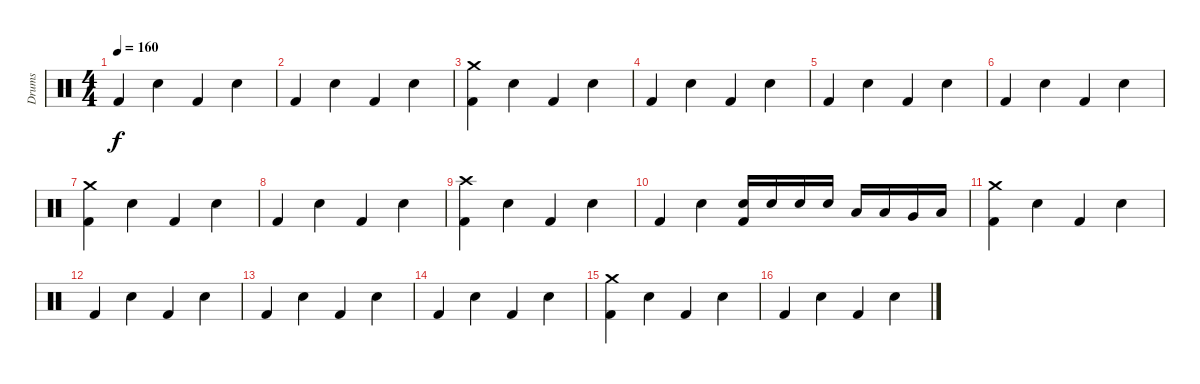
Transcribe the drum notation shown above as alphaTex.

\track ("Drums" "Drums") {instrument percussion}
\staff {score}
\articulation defaults
\ts (4 4)
\tempo 160
\clef neutral
\ks c "Kick (hit) 2".4{dy f} "Snare (hit) 2".4 "Kick (hit) 2".4 "Snare (hit) 2".4
|
"Kick (hit) 2".4 "Snare (hit) 2".4 "Kick (hit) 2".4 "Snare (hit) 2".4 |
("Kick (hit) 2" "Crash medium (hit)").4 "Snare (hit) 2".4 "Kick (hit) 2".4 "Snare (hit) 2".4 |
"Kick (hit) 2".4 "Snare (hit) 2".4 "Kick (hit) 2".4 "Snare (hit) 2".4 |
"Kick (hit) 2".4 "Snare (hit) 2".4 "Kick (hit) 2".4 "Snare (hit) 2".4 |
"Kick (hit) 2".4 "Snare (hit) 2".4 "Kick (hit) 2".4 "Snare (hit) 2".4 |
("Kick (hit) 2" "Crash medium (hit)").4 "Snare (hit) 2".4 "Kick (hit) 2".4 "Snare (hit) 2".4 |
"Kick (hit) 2".4 "Snare (hit) 2".4 "Kick (hit) 2".4 "Snare (hit) 2".4 |
("Kick (hit) 2" "Crash high (hit)").4 "Snare (hit) 2".4 "Kick (hit) 2".4 "Snare (hit) 2".4 |
"Kick (hit) 2".4 "Snare (hit) 2".4 ("Snare (hit) 2" "Kick (hit) 2").16 "Snare (hit) 2".16 "Snare (hit) 2".16 "Snare (hit) 2".16 "Low Tom (hit)".16 "Low Tom (hit)".16 "Very Low Tom (hit)".16 "Low Floor Tom (hit)".16 |
("Kick (hit) 2" "Crash medium (hit)").4 "Snare (hit) 2".4 "Kick (hit) 2".4 "Snare (hit) 2".4 |
"Kick (hit) 2".4 "Snare (hit) 2".4 "Kick (hit) 2".4 "Snare (hit) 2".4 |
"Kick (hit) 2".4 "Snare (hit) 2".4 "Kick (hit) 2".4 "Snare (hit) 2".4 |
"Kick (hit) 2".4 "Snare (hit) 2".4 "Kick (hit) 2".4 "Snare (hit) 2".4 |
("Kick (hit) 2" "Crash medium (hit)").4 "Snare (hit) 2".4 "Kick (hit) 2".4 "Snare (hit) 2".4 |
"Kick (hit) 2".4 "Snare (hit) 2".4 "Kick (hit) 2".4 "Snare (hit) 2".4
